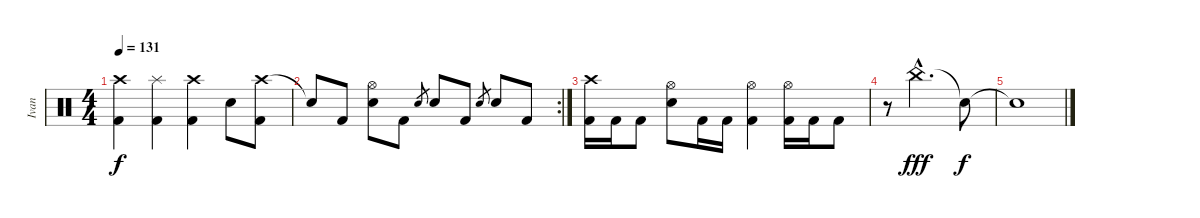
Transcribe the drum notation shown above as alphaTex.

\track ("Ivan" "Ivan") {instrument percussion}
\staff {score}
\articulation defaults
\ts (4 4)
\tempo 131
\clef neutral
\ks c
("Crash high (hit)" "Kick (hit) 2").4{dy f} ("Splash (hit)" "Kick (hit) 2").4 ("Crash high (hit)" "Kick (hit) 2").4 "Electric Snare (hit)".8 ("Crash high (hit)" "Kick (hit) 2").8 |
\rc 2 "Snare (hit)"{t}.8 "Kick (hit) 2".8
("Hi-Hat (open)" "Electric Snare (hit)").8 "Kick (hit) 2".8 "Electric Snare (hit)".8{gr} "Electric Snare (hit)".8 "Kick (hit) 2".8 "Electric Snare (hit)".8{gr} "Electric Snare (hit)".8 "Kick (hit) 2".8 |
("Crash high (hit)" "Kick (hit) 2").16 "Kick (hit) 2".16 "Kick (hit) 2".8 ("Hi-Hat (open)" "Electric Snare (hit)").8 "Kick (hit) 2".16 "Kick (hit) 2".16 ("Hi-Hat (open)" "Kick (hit) 2").4 ("Hi-Hat (open)" "Kick (hit) 2").16 "Kick (hit) 2".16 "Kick (hit) 2".8 |
r.8 "China (hit)"{hac}.2{d dy fff} "Snare (hit)"{t}.8{dy f} |
"Snare (hit)"{t}.1
